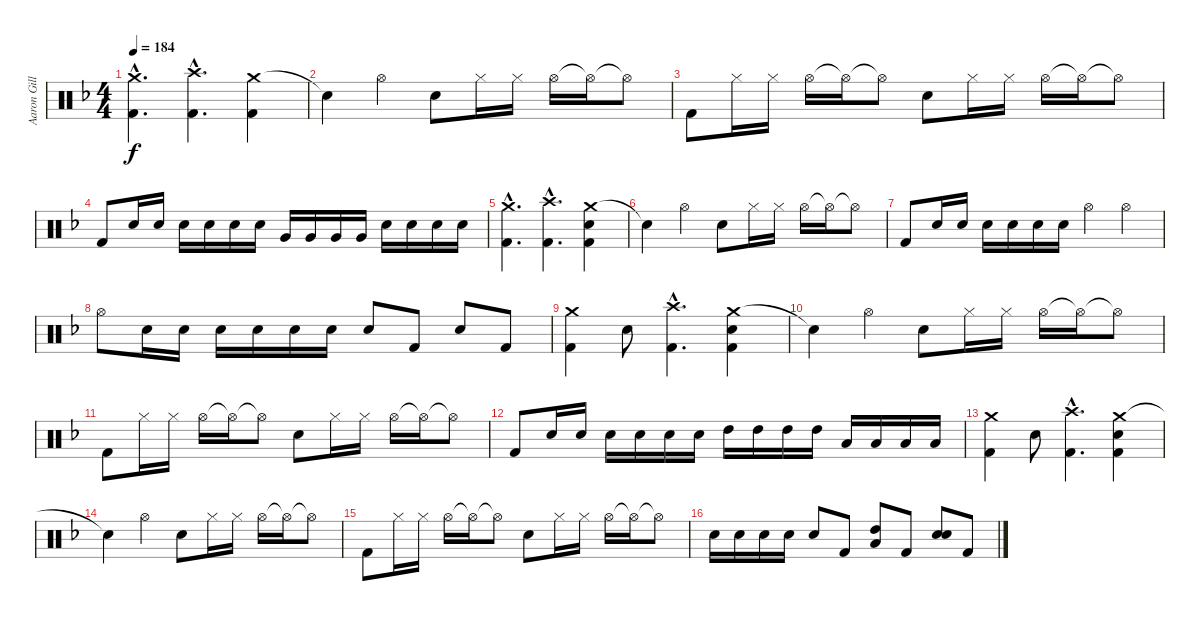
\track ("Aaron Gillespie" "Aaron Gill") {instrument percussion}
\staff {score}
\articulation defaults
\ts (4 4)
\tempo 184
\clef neutral
\ks dminor
("Crash medium (hit)"{hac} "Kick (hit) 2"{hac}).4{d dy f} ("Crash high (hit)"{hac} "Kick (hit) 2"{hac}).4{d} ("Crash medium (hit)" "Kick (hit) 2").4 |
"Snare (hit)"{t}.4 "Hi-Hat (open)".4 "Snare (hit) 2".8 "Hi-Hat (closed)".16 "Hi-Hat (closed)".16 "Hi-Hat (open)".16 "Hi-Hat (open)"{t}.16 "Hi-Hat (open)"{t}.8 |
"Kick (hit) 2".8 "Hi-Hat (closed)".16 "Hi-Hat (closed)".16 "Hi-Hat (open)".16 "Hi-Hat (open)"{t}.16 "Hi-Hat (open)"{t}.8 "Snare (hit) 2".8 "Hi-Hat (closed)".16 "Hi-Hat (closed)".16 "Hi-Hat (open)".16 "Hi-Hat (open)"{t}.16 "Hi-Hat (open)"{t}.8 |
"Kick (hit) 2".8 "Snare (hit) 2".16 "Snare (hit) 2".16 "Snare (hit) 2".16 "Snare (hit) 2".16 "Snare (hit) 2".16 "Snare (hit) 2".16 "Very Low Tom (hit)".16 "Very Low Tom (hit)".16 "Very Low Tom (hit)".16 "Very Low Tom (hit)".16 "Snare (hit) 2".16 "Snare (hit) 2".16 "Snare (hit) 2".16 "Snare (hit) 2".16 |
("Crash medium (hit)"{hac} "Kick (hit) 2"{hac}).4{d} ("Crash high (hit)"{hac} "Kick (hit) 2"{hac}).4{d} ("Crash medium (hit)" "Snare (hit) 2" "Kick (hit) 2").4 |
"Snare (hit)"{t}.4 "Hi-Hat (open)".4 "Snare (hit) 2".8 "Hi-Hat (closed)".16 "Hi-Hat (closed)".16 "Hi-Hat (open)".16 "Hi-Hat (open)"{t}.16 "Hi-Hat (open)"{t}.8 |
"Kick (hit) 2".8 "Snare (hit) 2".16 "Snare (hit) 2".16 "Snare (hit) 2".16 "Snare (hit) 2".16 "Snare (hit) 2".16 "Snare (hit) 2".16 "Hi-Hat (open)".4 "Hi-Hat (open)".4 |
"Hi-Hat (open)".8 "Snare (hit) 2".16 "Snare (hit) 2".16 "Snare (hit) 2".16 "Snare (hit) 2".16 "Snare (hit) 2".16 "Snare (hit) 2".16 "Snare (hit) 2".8 "Kick (hit) 2".8 "Snare (hit) 2".8 "Kick (hit) 2".8 |
("Crash medium (hit)" "Kick (hit) 2").4 "Snare (hit) 2".8 ("Crash high (hit)"{hac} "Kick (hit) 2"{hac}).4{d} ("Crash medium (hit)" "Snare (hit) 2" "Kick (hit) 2").4 |
"Snare (hit)"{t}.4 "Hi-Hat (open)".4 "Snare (hit) 2".8 "Hi-Hat (closed)".16 "Hi-Hat (closed)".16 "Hi-Hat (open)".16 "Hi-Hat (open)"{t}.16 "Hi-Hat (open)"{t}.8 |
"Kick (hit) 2".8 "Hi-Hat (closed)".16 "Hi-Hat (closed)".16 "Hi-Hat (open)".16 "Hi-Hat (open)"{t}.16 "Hi-Hat (open)"{t}.8 "Snare (hit) 2".8 "Hi-Hat (closed)".16 "Hi-Hat (closed)".16 "Hi-Hat (open)".16 "Hi-Hat (open)"{t}.16 "Hi-Hat (open)"{t}.8 |
"Kick (hit) 2".8 "Snare (hit) 2".16 "Snare (hit) 2".16 "Snare (hit) 2".16 "Snare (hit) 2".16 "Snare (hit) 2".16 "Snare (hit) 2".16 "High Tom (hit)".16 "High Tom (hit)".16 "High Tom (hit)".16 "High Tom (hit)".16 "Low Tom (hit)".16 "Low Tom (hit)".16 "Low Tom (hit)".16 "Low Tom (hit)".16 |
("Crash medium (hit)" "Kick (hit) 2").4 "Snare (hit) 2".8 ("Crash high (hit)"{hac} "Kick (hit) 2"{hac}).4{d} ("Crash medium (hit)" "Snare (hit) 2" "Kick (hit) 2").4 |
"Snare (hit)"{t}.4 "Hi-Hat (open)".4 "Snare (hit) 2".8 "Hi-Hat (closed)".16 "Hi-Hat (closed)".16 "Hi-Hat (open)".16 "Hi-Hat (open)"{t}.16 "Hi-Hat (open)"{t}.8 |
"Kick (hit) 2".8 "Hi-Hat (closed)".16 "Hi-Hat (closed)".16 "Hi-Hat (open)".16 "Hi-Hat (open)"{t}.16 "Hi-Hat (open)"{t}.8 "Snare (hit) 2".8 "Hi-Hat (closed)".16 "Hi-Hat (closed)".16 "Hi-Hat (open)".16 "Hi-Hat (open)"{t}.16 "Hi-Hat (open)"{t}.8 |
"Snare (hit) 2".16 "Snare (hit) 2".16 "Snare (hit) 2".16 "Snare (hit) 2".16 "Snare (hit) 2".8 "Kick (hit) 2".8 ("High Tom (hit)" "Low Tom (hit)").8 "Kick (hit) 2".8 ("Snare (hit) 2" "Snare (hit) 2").8 "Kick (hit) 2".8
